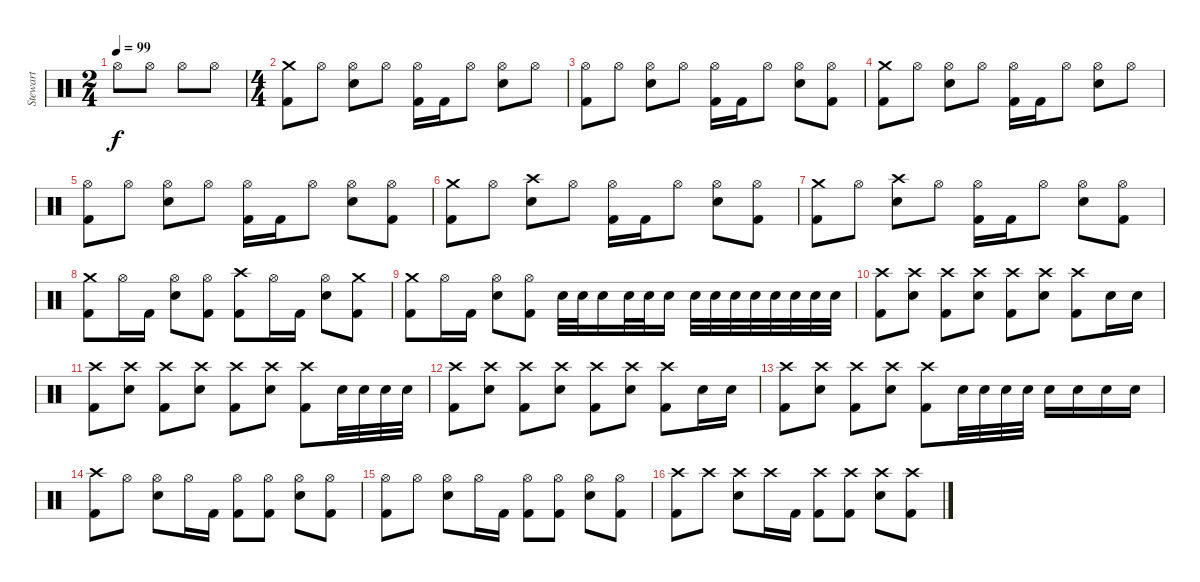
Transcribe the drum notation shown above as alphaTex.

\track ("Stewart" "Stewart") {instrument percussion}
\staff {score}
\articulation defaults
\ts (2 4)
\tempo 99
\clef neutral
\ks c "Hi-Hat (open)".8{dy f} "Hi-Hat (open)".8 "Hi-Hat (open)".8 "Hi-Hat (open)".8
|
\ts (4 4)
("Crash medium (hit)" "Kick (hit) 2").8 "Hi-Hat (open)".8 ("Hi-Hat (open)" "Snare (hit) 2").8 "Hi-Hat (open)".8 ("Hi-Hat (open)" "Kick (hit) 2").16 "Kick (hit) 2".16 "Hi-Hat (open)".8 ("Hi-Hat (open)" "Snare (hit) 2").8 "Hi-Hat (open)".8 |
("Hi-Hat (open)" "Kick (hit) 2").8 "Hi-Hat (open)".8 ("Hi-Hat (open)" "Snare (hit) 2").8 "Hi-Hat (open)".8 ("Hi-Hat (open)" "Kick (hit) 2").16 "Kick (hit) 2".16 "Hi-Hat (open)".8 ("Hi-Hat (open)" "Snare (hit) 2").8 ("Hi-Hat (open)" "Kick (hit) 2").8 |
("Crash medium (hit)" "Kick (hit) 2").8 "Hi-Hat (open)".8 ("Hi-Hat (open)" "Snare (hit) 2").8 "Hi-Hat (open)".8 ("Hi-Hat (open)" "Kick (hit) 2").16 "Kick (hit) 2".16 "Hi-Hat (open)".8 ("Hi-Hat (open)" "Snare (hit) 2").8 "Hi-Hat (open)".8 |
("Hi-Hat (open)" "Kick (hit) 2").8 "Hi-Hat (open)".8 ("Hi-Hat (open)" "Snare (hit) 2").8 "Hi-Hat (open)".8 ("Hi-Hat (open)" "Kick (hit) 2").16 "Kick (hit) 2".16 "Hi-Hat (open)".8 ("Hi-Hat (open)" "Snare (hit) 2").8 ("Hi-Hat (open)" "Kick (hit) 2").8 |
("Crash medium (hit)" "Kick (hit) 2").8 "Hi-Hat (open)".8 ("Crash high (hit)" "Snare (hit) 2").8 "Hi-Hat (open)".8 ("Hi-Hat (open)" "Kick (hit) 2").16 "Kick (hit) 2".16 "Hi-Hat (open)".8 ("Hi-Hat (open)" "Snare (hit) 2").8 ("Hi-Hat (open)" "Kick (hit) 2").8 |
("Crash medium (hit)" "Kick (hit) 2").8 "Hi-Hat (open)".8 ("Crash high (hit)" "Snare (hit) 2").8 "Hi-Hat (open)".8 ("Hi-Hat (open)" "Kick (hit) 2").16 "Kick (hit) 2".16 "Hi-Hat (open)".8 ("Hi-Hat (open)" "Snare (hit) 2").8 ("Hi-Hat (open)" "Kick (hit) 2").8 |
("Crash medium (hit)" "Kick (hit) 2").8 "Hi-Hat (open)".16 "Kick (hit) 2".16 ("Hi-Hat (open)" "Snare (hit) 2").8 ("Hi-Hat (open)" "Kick (hit) 2").8 ("Crash high (hit)" "Kick (hit) 2").8 "Hi-Hat (open)".16 "Kick (hit) 2".16 ("Hi-Hat (open)" "Snare (hit) 2").8 ("Crash medium (hit)" "Kick (hit) 2").8 |
("Crash medium (hit)" "Kick (hit) 2").8 "Hi-Hat (open)".16 "Kick (hit) 2".16 ("Hi-Hat (open)" "Snare (hit) 2").8 ("Hi-Hat (open)" "Kick (hit) 2").8 "Snare (hit) 2".32 "Snare (hit) 2".32 "Snare (hit) 2".16 "Snare (hit) 2".32 "Snare (hit) 2".32 "Snare (hit) 2".16 "Snare (hit) 2".32 "Snare (hit) 2".32 "Snare (hit) 2".32 "Snare (hit) 2".32 "Snare (hit) 2".32 "Snare (hit) 2".32 "Snare (hit) 2".32 "Snare (hit) 2".32 |
("Crash high (hit)" "Kick (hit) 2").8 ("Crash high (hit)" "Snare (hit) 2").8 ("Crash high (hit)" "Kick (hit) 2").8 ("Crash high (hit)" "Snare (hit) 2").8 ("Crash high (hit)" "Kick (hit) 2").8 ("Crash high (hit)" "Snare (hit) 2").8 ("Crash high (hit)" "Kick (hit) 2").8 "Snare (hit) 2".16 "Snare (hit) 2".16 |
("Crash high (hit)" "Kick (hit) 2").8 ("Crash high (hit)" "Snare (hit) 2").8 ("Crash high (hit)" "Kick (hit) 2").8 ("Crash high (hit)" "Snare (hit) 2").8 ("Crash high (hit)" "Kick (hit) 2").8 ("Crash high (hit)" "Snare (hit) 2").8 ("Crash high (hit)" "Kick (hit) 2").8 "Snare (hit) 2".32 "Snare (hit) 2".32 "Snare (hit) 2".32 "Snare (hit) 2".32 |
("Crash high (hit)" "Kick (hit) 2").8 ("Crash high (hit)" "Snare (hit) 2").8 ("Crash high (hit)" "Kick (hit) 2").8 ("Crash high (hit)" "Snare (hit) 2").8 ("Crash high (hit)" "Kick (hit) 2").8 ("Crash high (hit)" "Snare (hit) 2").8 ("Crash high (hit)" "Kick (hit) 2").8 "Snare (hit) 2".16 "Snare (hit) 2".16 |
("Crash high (hit)" "Kick (hit) 2").8 ("Crash high (hit)" "Snare (hit) 2").8 ("Crash high (hit)" "Kick (hit) 2").8 ("Crash high (hit)" "Snare (hit) 2").8 ("Crash high (hit)" "Kick (hit) 2").8 "Snare (hit) 2".32 "Snare (hit) 2".32 "Snare (hit) 2".32 "Snare (hit) 2".32 "Snare (hit) 2".16 "Snare (hit) 2".16 "Snare (hit) 2".16 "Snare (hit) 2".16 |
("Crash high (hit)" "Kick (hit) 2").8 "Hi-Hat (open)".8 ("Hi-Hat (open)" "Snare (hit) 2").8 "Hi-Hat (open)".16 "Kick (hit) 2".16 ("Hi-Hat (open)" "Kick (hit) 2").8 ("Hi-Hat (open)" "Kick (hit) 2").8 ("Hi-Hat (open)" "Snare (hit) 2").8 ("Hi-Hat (open)" "Kick (hit) 2").8 |
("Hi-Hat (open)" "Kick (hit) 2").8 "Hi-Hat (open)".8 ("Hi-Hat (open)" "Snare (hit) 2").8 "Hi-Hat (open)".16 "Kick (hit) 2".16 ("Hi-Hat (open)" "Kick (hit) 2").8 ("Hi-Hat (open)" "Kick (hit) 2").8 ("Hi-Hat (open)" "Snare (hit) 2").8 ("Hi-Hat (open)" "Kick (hit) 2").8 |
("Crash high (hit)" "Kick (hit) 2").8 "Crash high (hit)".8 ("Crash high (hit)" "Snare (hit) 2").8 "Crash high (hit)".16 "Kick (hit) 2".16 ("Crash high (hit)" "Kick (hit) 2").8 ("Crash high (hit)" "Kick (hit) 2").8 ("Crash high (hit)" "Snare (hit) 2").8 ("Crash high (hit)" "Kick (hit) 2").8
